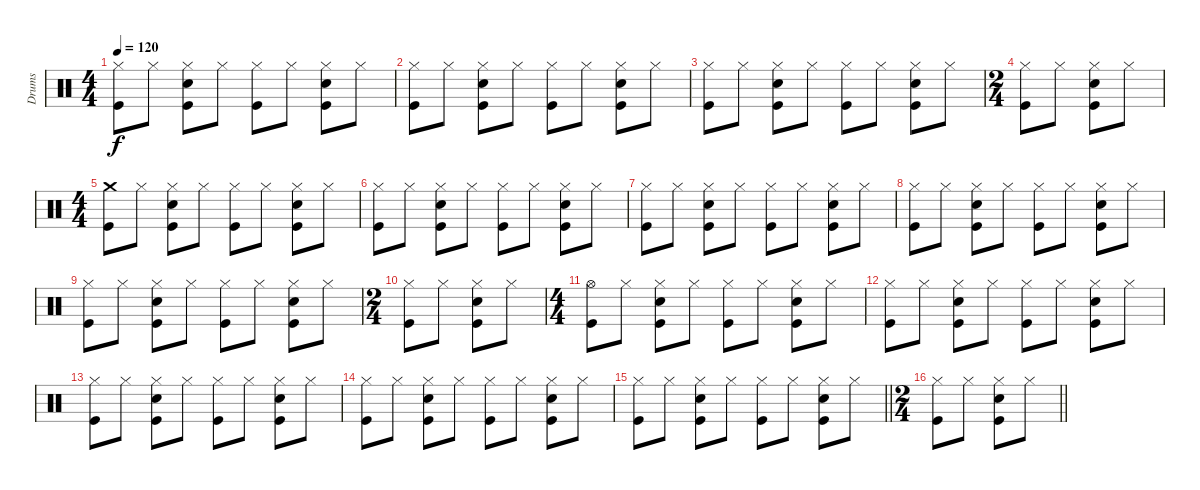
\track ("Drums" "Drums") {instrument percussion}
\staff {score}
\articulation defaults
\ts (4 4)
\tempo 120
\clef neutral
\ks c
("Hi-Hat (closed)" "Kick (hit)").8{dy f} "Hi-Hat (closed)".8 ("Hi-Hat (closed)" "Snare (hit) 2" "Kick (hit)").8 "Hi-Hat (closed)".8 ("Hi-Hat (closed)" "Kick (hit)").8 "Hi-Hat (closed)".8 ("Hi-Hat (closed)" "Snare (hit) 2" "Kick (hit)").8 "Hi-Hat (closed)".8 |
("Hi-Hat (closed)" "Kick (hit)").8 "Hi-Hat (closed)".8 ("Hi-Hat (closed)" "Snare (hit) 2" "Kick (hit)").8 "Hi-Hat (closed)".8 ("Hi-Hat (closed)" "Kick (hit)").8 "Hi-Hat (closed)".8 ("Hi-Hat (closed)" "Snare (hit) 2" "Kick (hit)").8 "Hi-Hat (closed)".8 |
("Hi-Hat (closed)" "Kick (hit)").8 "Hi-Hat (closed)".8 ("Hi-Hat (closed)" "Snare (hit) 2" "Kick (hit)").8 "Hi-Hat (closed)".8 ("Hi-Hat (closed)" "Kick (hit)").8 "Hi-Hat (closed)".8 ("Hi-Hat (closed)" "Snare (hit) 2" "Kick (hit)").8 "Hi-Hat (closed)".8 |
\ts (2 4)
("Hi-Hat (closed)" "Kick (hit)").8 "Hi-Hat (closed)".8 ("Hi-Hat (closed)" "Snare (hit) 2" "Kick (hit)").8 "Hi-Hat (closed)".8 |
\ts (4 4)
("Crash medium (hit)" "Kick (hit)").8 "Hi-Hat (closed)".8 ("Hi-Hat (closed)" "Snare (hit) 2" "Kick (hit)").8 "Hi-Hat (closed)".8 ("Hi-Hat (closed)" "Kick (hit)").8 "Hi-Hat (closed)".8 ("Hi-Hat (closed)" "Snare (hit) 2" "Kick (hit)").8 "Hi-Hat (closed)".8 |
("Hi-Hat (closed)" "Kick (hit)").8 "Hi-Hat (closed)".8 ("Hi-Hat (closed)" "Snare (hit) 2" "Kick (hit)").8 "Hi-Hat (closed)".8 ("Hi-Hat (closed)" "Kick (hit)").8 "Hi-Hat (closed)".8 ("Hi-Hat (closed)" "Snare (hit) 2" "Kick (hit)").8 "Hi-Hat (closed)".8 |
("Hi-Hat (closed)" "Kick (hit)").8 "Hi-Hat (closed)".8 ("Hi-Hat (closed)" "Snare (hit) 2" "Kick (hit)").8 "Hi-Hat (closed)".8 ("Hi-Hat (closed)" "Kick (hit)").8 "Hi-Hat (closed)".8 ("Hi-Hat (closed)" "Snare (hit) 2" "Kick (hit)").8 "Hi-Hat (closed)".8 |
("Hi-Hat (closed)" "Kick (hit)").8 "Hi-Hat (closed)".8 ("Hi-Hat (closed)" "Snare (hit) 2" "Kick (hit)").8 "Hi-Hat (closed)".8 ("Hi-Hat (closed)" "Kick (hit)").8 "Hi-Hat (closed)".8 ("Hi-Hat (closed)" "Snare (hit) 2" "Kick (hit)").8 "Hi-Hat (closed)".8 |
("Hi-Hat (closed)" "Kick (hit)").8 "Hi-Hat (closed)".8 ("Hi-Hat (closed)" "Snare (hit) 2" "Kick (hit)").8 "Hi-Hat (closed)".8 ("Hi-Hat (closed)" "Kick (hit)").8 "Hi-Hat (closed)".8 ("Hi-Hat (closed)" "Snare (hit) 2" "Kick (hit)").8 "Hi-Hat (closed)".8 |
\ts (2 4)
("Hi-Hat (closed)" "Kick (hit)").8 "Hi-Hat (closed)".8 ("Hi-Hat (closed)" "Snare (hit) 2" "Kick (hit)").8 "Hi-Hat (closed)".8 |
\ts (4 4)
("Hi-Hat (open)" "Kick (hit)").8 "Hi-Hat (closed)".8 ("Hi-Hat (closed)" "Snare (hit) 2" "Kick (hit)").8 "Hi-Hat (closed)".8 ("Hi-Hat (closed)" "Kick (hit)").8 "Hi-Hat (closed)".8 ("Hi-Hat (closed)" "Snare (hit) 2" "Kick (hit)").8 "Hi-Hat (closed)".8 |
("Hi-Hat (closed)" "Kick (hit)").8 "Hi-Hat (closed)".8 ("Hi-Hat (closed)" "Snare (hit) 2" "Kick (hit)").8 "Hi-Hat (closed)".8 ("Hi-Hat (closed)" "Kick (hit)").8 "Hi-Hat (closed)".8 ("Hi-Hat (closed)" "Snare (hit) 2" "Kick (hit)").8 "Hi-Hat (closed)".8 |
("Hi-Hat (closed)" "Kick (hit)").8 "Hi-Hat (closed)".8 ("Hi-Hat (closed)" "Snare (hit) 2" "Kick (hit)").8 "Hi-Hat (closed)".8 ("Hi-Hat (closed)" "Kick (hit)").8 "Hi-Hat (closed)".8 ("Hi-Hat (closed)" "Snare (hit) 2" "Kick (hit)").8 "Hi-Hat (closed)".8 |
("Hi-Hat (closed)" "Kick (hit)").8 "Hi-Hat (closed)".8 ("Hi-Hat (closed)" "Snare (hit) 2" "Kick (hit)").8 "Hi-Hat (closed)".8 ("Hi-Hat (closed)" "Kick (hit)").8 "Hi-Hat (closed)".8 ("Hi-Hat (closed)" "Snare (hit) 2" "Kick (hit)").8 "Hi-Hat (closed)".8 |
\barLineRight lightlight
("Hi-Hat (closed)" "Kick (hit)").8 "Hi-Hat (closed)".8 ("Hi-Hat (closed)" "Snare (hit) 2" "Kick (hit)").8 "Hi-Hat (closed)".8 ("Hi-Hat (closed)" "Kick (hit)").8 "Hi-Hat (closed)".8 ("Hi-Hat (closed)" "Snare (hit) 2" "Kick (hit)").8 "Hi-Hat (closed)".8 |
\ts (2 4)
\barLineRight lightlight
("Hi-Hat (closed)" "Kick (hit)").8 "Hi-Hat (closed)".8 ("Hi-Hat (closed)" "Snare (hit) 2" "Kick (hit)").8 "Hi-Hat (closed)".8
